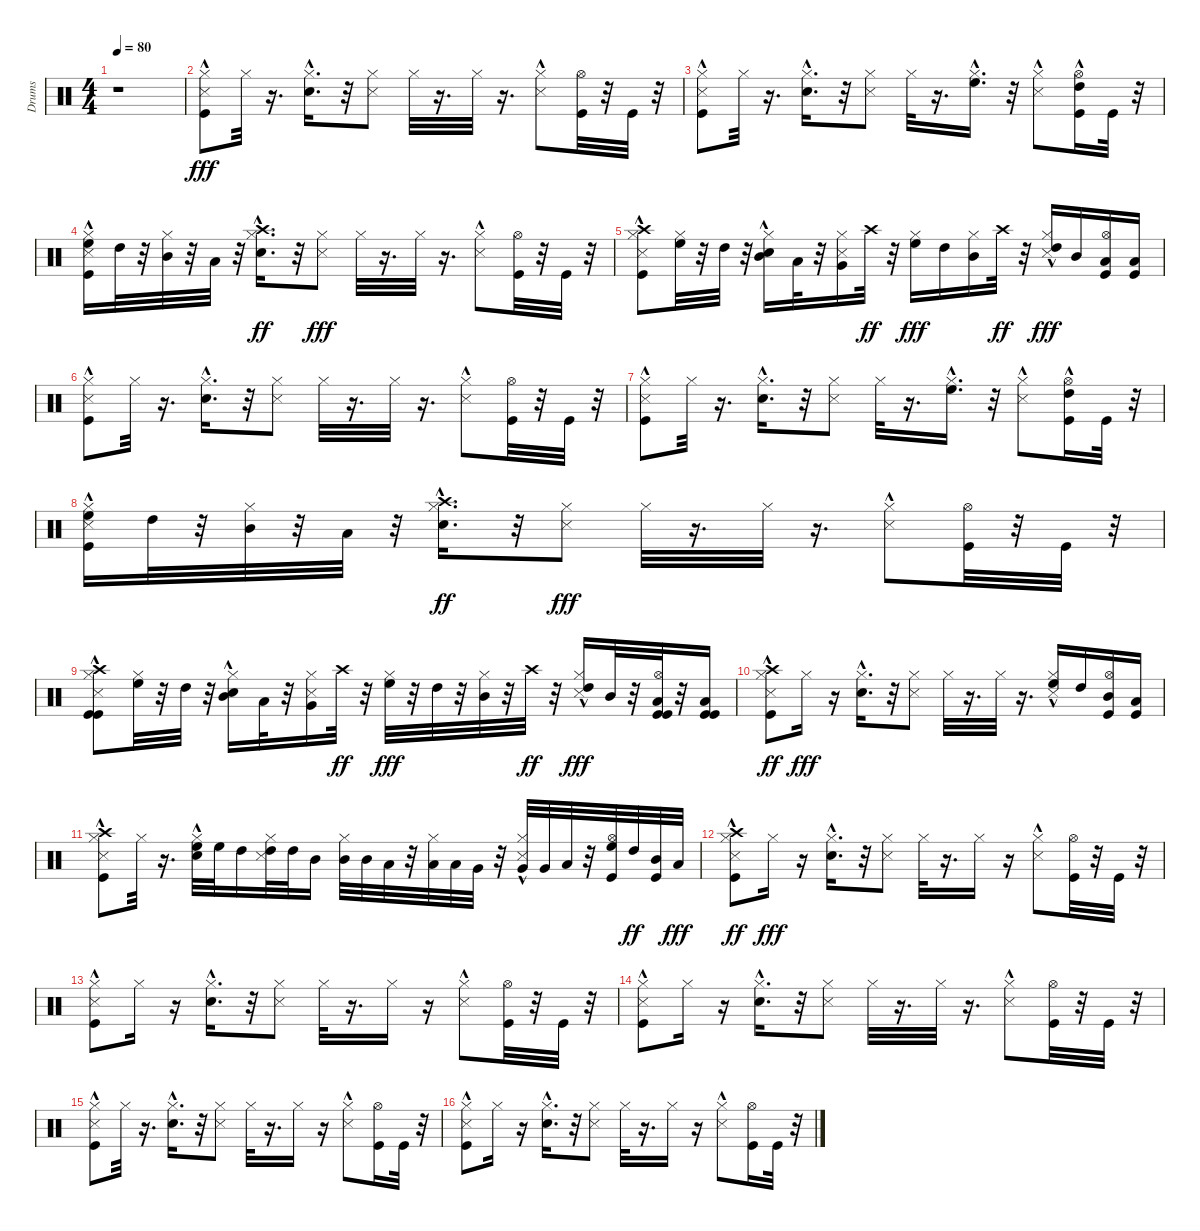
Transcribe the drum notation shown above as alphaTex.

\track ("Drums" "Drums") {instrument percussion}
\staff {score}
\articulation defaults
\ts (4 4)
\tempo 80
\clef neutral
\ks c
r.1{dy fff} |
("Snare (side stick) 3" "Kick (hit)"{hac} "Hi-Hat (closed)").8 "Hi-Hat (closed)".32 r.16{d} ("Hi-Hat (closed)" "Electric Snare (hit)"{hac}).16{d} r.32 ("Snare (side stick) 3" "Hi-Hat (closed)").8 "Hi-Hat (closed)".32 r.16{d} "Hi-Hat (closed)".32 r.16{d} ("Snare (side stick) 3"{hac} "Hi-Hat (closed)").8 ("Hi-Hat (open)" "Kick (hit)").32 r.32 "Kick (hit)".32 r.32 |
("Snare (side stick) 3" "Kick (hit)"{hac} "Hi-Hat (closed)").8 "Hi-Hat (closed)".32 r.16{d} ("Electric Snare (hit)"{hac} "Hi-Hat (closed)").16{d} r.32 ("Snare (side stick) 3" "Hi-Hat (closed)").8 "Hi-Hat (closed)".32 r.16{d} ("Hi-Hat (closed)" "High Floor Tom (hit)"{hac}).16{d} r.32 ("Snare (side stick) 3"{hac} "Hi-Hat (closed)").8 ("Hi-Hat (open)" "Kick (hit)" "High Tom (hit)"{hac}).16 "Kick (hit)".32 r.32 |
("Snare (side stick) 3" "Kick (hit)"{hac} "Hi-Hat (closed)" "High Floor Tom (hit)").16 "High Tom (hit)".32 r.32 ("Hi-Hat (closed)" "Mid Tom (hit)").32 r.32 "Low Tom (hit)".32 r.32 ("Electric Snare (hit)"{hac} "Hi-Hat (closed)" "Crash high (hit)").16{d dy ff} r.32 ("Snare (side stick) 3" "Hi-Hat (closed)").8{dy fff} "Hi-Hat (closed)".32 r.16{d} "Hi-Hat (closed)".32 r.16{d} ("Snare (side stick) 3"{hac} "Hi-Hat (closed)").8 ("Hi-Hat (open)" "Kick (hit)").32 r.32 "Kick (hit)".32 r.32 |
("Snare (side stick) 3" "Kick (hit)"{hac} "Hi-Hat (closed)" "Crash high (hit)"{hac}).8 ("Hi-Hat (closed)" "High Floor Tom (hit)").32 r.32 "High Tom (hit)".32 r.32 ("Hi-Hat (closed)" "Mid Tom (hit)" "Electric Snare (hit)"{hac}).16 "Low Tom (hit)".32 r.32 ("Snare (side stick) 3" "Hi-Hat (closed)" "Very Low Tom (hit)").16 "Crash high (hit)".32{dy ff} r.32 ("Hi-Hat (closed)" "High Floor Tom (hit)").16{dy fff} "High Tom (hit)".16 ("Hi-Hat (closed)" "Mid Tom (hit)").16 "Crash high (hit)".32{dy ff} r.32 ("Hi-Hat (closed)" "High Tom (hit)" "Snare (side stick) 3"{hac}).16{dy fff} "Mid Tom (hit)".16 ("Kick (hit)" "Low Tom (hit)" "Hi-Hat (open)").16 ("Low Tom (hit)" "Kick (hit)").16 |
("Snare (side stick) 3" "Kick (hit)"{hac} "Hi-Hat (closed)").8 "Hi-Hat (closed)".32 r.16{d} ("Electric Snare (hit)"{hac} "Hi-Hat (closed)").16{d} r.32 ("Snare (side stick) 3" "Hi-Hat (closed)").8 "Hi-Hat (closed)".32 r.16{d} "Hi-Hat (closed)".32 r.16{d} ("Snare (side stick) 3"{hac} "Hi-Hat (closed)").8 ("Hi-Hat (open)" "Kick (hit)").32 r.32 "Kick (hit)".32 r.32 |
("Snare (side stick) 3" "Kick (hit)"{hac} "Hi-Hat (closed)").8 "Hi-Hat (closed)".32 r.16{d} ("Hi-Hat (closed)" "Electric Snare (hit)"{hac}).16{d} r.32 ("Snare (side stick) 3" "Hi-Hat (closed)").8 "Hi-Hat (closed)".32 r.16{d} ("High Floor Tom (hit)"{hac} "Hi-Hat (closed)").16{d} r.32 ("Hi-Hat (closed)" "Snare (side stick) 3"{hac}).8 ("High Tom (hit)"{hac} "Hi-Hat (open)" "Kick (hit)").16 "Kick (hit)".32 r.32 |
("Snare (side stick) 3" "Kick (hit)"{hac} "Hi-Hat (closed)" "High Floor Tom (hit)").16 "High Tom (hit)".32 r.32 ("Hi-Hat (closed)" "Mid Tom (hit)").32 r.32 "Low Tom (hit)".32 r.32 ("Electric Snare (hit)"{hac} "Hi-Hat (closed)" "Crash high (hit)").16{d dy ff} r.32 ("Snare (side stick) 3" "Hi-Hat (closed)").8{dy fff} "Hi-Hat (closed)".32 r.16{d} "Hi-Hat (closed)".32 r.16{d} ("Snare (side stick) 3"{hac} "Hi-Hat (closed)").8 ("Hi-Hat (open)" "Kick (hit)").32 r.32 "Kick (hit)".32 r.32 |
("Kick (hit)"{hac} "Snare (side stick) 3" "Kick (hit)"{hac} "Hi-Hat (closed)" "Crash high (hit)"{hac}).8 ("Hi-Hat (closed)" "High Floor Tom (hit)").32 r.32 "High Tom (hit)".32 r.32 ("Electric Snare (hit)"{hac} "Hi-Hat (closed)" "Mid Tom (hit)").16 "Low Tom (hit)".32 r.32 ("Snare (side stick) 3" "Hi-Hat (closed)" "Very Low Tom (hit)").16 "Crash high (hit)".32{dy ff} r.32 ("Hi-Hat (closed)" "High Floor Tom (hit)").32{dy fff} r.32 "High Tom (hit)".32 r.32 ("Hi-Hat (closed)" "Mid Tom (hit)").32 r.32 "Crash high (hit)".32{dy ff} r.32 ("Snare (side stick) 3"{hac} "Hi-Hat (closed)" "High Tom (hit)").16{dy fff} "Mid Tom (hit)".32 r.32 ("Kick (hit)" "Hi-Hat (open)" "Kick (hit)" "Low Tom (hit)").32 r.32 ("Kick (hit)" "Low Tom (hit)" "Kick (hit)").16 |
("Snare (side stick) 3" "Kick (hit)"{hac} "Hi-Hat (closed)" "Crash high (hit)"{hac}).8{dy ff} "Hi-Hat (closed)".16{dy fff} r.16 ("Electric Snare (hit)"{hac} "Hi-Hat (closed)").16{d} r.32 ("Snare (side stick) 3" "Hi-Hat (closed)").8 "Hi-Hat (closed)".32 r.16{d} "Hi-Hat (closed)".32 r.16{d} ("Snare (side stick) 3"{hac} "Hi-Hat (closed)" "High Floor Tom (hit)").16 "High Tom (hit)".16 ("Kick (hit)" "Mid Tom (hit)" "Hi-Hat (open)").16 ("Kick (hit)" "Low Tom (hit)").16 |
("Snare (side stick) 3" "Kick (hit)"{hac} "Hi-Hat (closed)" "Crash high (hit)"{hac}).8 "Hi-Hat (closed)".32 r.16{d} ("Hi-Hat (closed)" "High Floor Tom (hit)" "Electric Snare (hit)"{hac}).32 "High Floor Tom (hit)".32 "High Tom (hit)".16 ("Hi-Hat (closed)" "High Tom (hit)" "Snare (side stick) 3").32 "High Tom (hit)".32 "Mid Tom (hit)".16 ("Hi-Hat (closed)" "Mid Tom (hit)").32 "Mid Tom (hit)".32 "Low Tom (hit)".32 r.32 ("Hi-Hat (closed)" "Low Tom (hit)").32 "Low Tom (hit)".32 "Very Low Tom (hit)".32 r.32 ("Very Low Tom (hit)" "Snare (side stick) 3"{hac} "Hi-Hat (closed)").32 "Very Low Tom (hit)".32 "Low Floor Tom (hit)".32 r.32 ("High Floor Tom (hit)" "Hi-Hat (open)" "Kick (hit)").32 "High Tom (hit)".32{dy ff} ("Kick (hit)" "Mid Tom (hit)").32 "Low Tom (hit)".32{dy fff} |
("Snare (side stick) 3" "Kick (hit)"{hac} "Hi-Hat (closed)" "Crash high (hit)"{hac}).8{dy ff} "Hi-Hat (closed)".16{dy fff} r.16 ("Electric Snare (hit)"{hac} "Hi-Hat (closed)").16{d} r.32 ("Snare (side stick) 3" "Hi-Hat (closed)").8 "Hi-Hat (closed)".32 r.16{d} "Hi-Hat (closed)".16 r.16 ("Snare (side stick) 3"{hac} "Hi-Hat (closed)").8 ("Kick (hit)" "Hi-Hat (open)").32 r.32 "Kick (hit)".32 r.32 |
("Snare (side stick) 3" "Kick (hit)"{hac} "Hi-Hat (closed)").8 "Hi-Hat (closed)".16 r.16 ("Hi-Hat (closed)" "Electric Snare (hit)"{hac}).16{d} r.32 ("Hi-Hat (closed)" "Snare (side stick) 3").8 "Hi-Hat (closed)".32 r.16{d} "Hi-Hat (closed)".16 r.16 ("Hi-Hat (closed)" "Snare (side stick) 3"{hac}).8 ("Hi-Hat (open)" "Kick (hit)").32 r.32 "Kick (hit)".32 r.32 |
("Snare (side stick) 3" "Kick (hit)"{hac} "Hi-Hat (closed)").8 "Hi-Hat (closed)".16 r.16 ("Electric Snare (hit)"{hac} "Hi-Hat (closed)").16{d} r.32 ("Snare (side stick) 3" "Hi-Hat (closed)").8 "Hi-Hat (closed)".32 r.16{d} "Hi-Hat (closed)".32 r.16{d} ("Snare (side stick) 3"{hac} "Hi-Hat (closed)").8 ("Hi-Hat (open)" "Kick (hit)").32 r.32 "Kick (hit)".32 r.32 |
("Snare (side stick) 3" "Kick (hit)"{hac} "Hi-Hat (closed)").8 "Hi-Hat (closed)".32 r.16{d} ("Electric Snare (hit)"{hac} "Hi-Hat (closed)").16{d} r.32 ("Snare (side stick) 3" "Hi-Hat (closed)").8 "Hi-Hat (closed)".32 r.16{d} "Hi-Hat (closed)".16 r.16 ("Snare (side stick) 3"{hac} "Hi-Hat (closed)").8 ("Hi-Hat (open)" "Kick (hit)").16 "Kick (hit)".32 r.32 |
("Snare (side stick) 3" "Kick (hit)"{hac} "Hi-Hat (closed)").8 "Hi-Hat (closed)".16 r.16 ("Electric Snare (hit)"{hac} "Hi-Hat (closed)").16{d} r.32 ("Snare (side stick) 3" "Hi-Hat (closed)").8 "Hi-Hat (closed)".32 r.16{d} "Hi-Hat (closed)".16 r.16 ("Snare (side stick) 3"{hac} "Hi-Hat (closed)").8 ("Hi-Hat (open)" "Kick (hit)").16 "Kick (hit)".32 r.32
